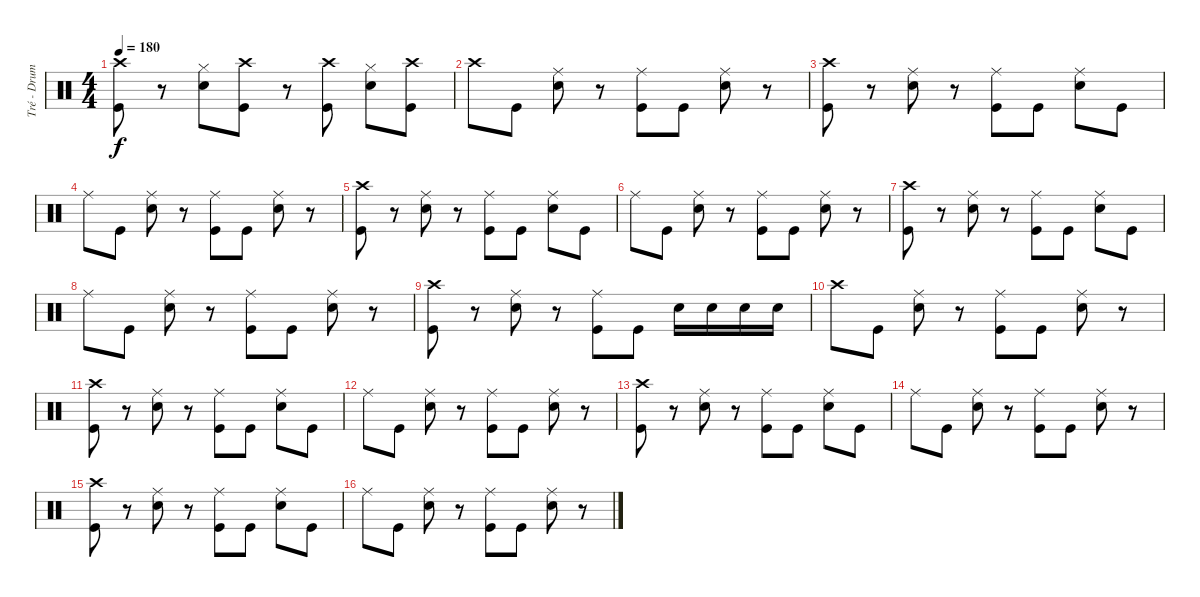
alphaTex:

\track ("Tré - Drums" "Tré - Drum") {instrument percussion}
\staff {score}
\articulation defaults
\ts (4 4)
\tempo 180
\clef neutral
\ks c
("Crash high (hit)" "Kick (hit)").8{dy f} r.8 ("Hi-Hat (closed)" "Electric Snare (hit)").8 ("Crash high (hit)" "Kick (hit)").8 r.8 ("Crash high (hit)" "Kick (hit)").8 ("Hi-Hat (closed)" "Electric Snare (hit)").8 ("Crash high (hit)" "Kick (hit)").8 |
"Crash high (hit)".8 "Kick (hit)".8 ("Ride (middle)" "Electric Snare (hit)").8 r.8 ("Ride (middle)" "Kick (hit)").8 "Kick (hit)".8 ("Ride (middle)" "Electric Snare (hit)").8 r.8 |
("Crash high (hit)" "Kick (hit)").8 r.8 ("Ride (middle)" "Electric Snare (hit)").8 r.8 ("Ride (middle)" "Kick (hit)").8 "Kick (hit)".8 ("Ride (middle)" "Electric Snare (hit)").8 "Kick (hit)".8 |
"Ride (middle)".8 "Kick (hit)".8 ("Ride (middle)" "Electric Snare (hit)").8 r.8 ("Ride (middle)" "Kick (hit)").8 "Kick (hit)".8 ("Ride (middle)" "Electric Snare (hit)").8 r.8 |
("Crash high (hit)" "Kick (hit)").8 r.8 ("Ride (middle)" "Electric Snare (hit)").8 r.8 ("Ride (middle)" "Kick (hit)").8 "Kick (hit)".8 ("Ride (middle)" "Electric Snare (hit)").8 "Kick (hit)".8 |
"Ride (middle)".8 "Kick (hit)".8 ("Ride (middle)" "Electric Snare (hit)").8 r.8 ("Ride (middle)" "Kick (hit)").8 "Kick (hit)".8 ("Ride (middle)" "Electric Snare (hit)").8 r.8 |
("Crash high (hit)" "Kick (hit)").8 r.8 ("Ride (middle)" "Electric Snare (hit)").8 r.8 ("Ride (middle)" "Kick (hit)").8 "Kick (hit)".8 ("Ride (middle)" "Electric Snare (hit)").8 "Kick (hit)".8 |
"Ride (middle)".8 "Kick (hit)".8 ("Ride (middle)" "Electric Snare (hit)").8 r.8 ("Ride (middle)" "Kick (hit)").8 "Kick (hit)".8 ("Ride (middle)" "Electric Snare (hit)").8 r.8 |
("Crash high (hit)" "Kick (hit)").8 r.8 ("Ride (middle)" "Electric Snare (hit)").8 r.8 ("Ride (middle)" "Kick (hit)").8 "Kick (hit)".8 "Electric Snare (hit)".16 "Electric Snare (hit)".16 "Electric Snare (hit)".16 "Electric Snare (hit)".16 |
"Crash high (hit)".8 "Kick (hit)".8 ("Ride (middle)" "Electric Snare (hit)").8 r.8 ("Ride (middle)" "Kick (hit)").8 "Kick (hit)".8 ("Ride (middle)" "Electric Snare (hit)").8 r.8 |
("Crash high (hit)" "Kick (hit)").8 r.8 ("Ride (middle)" "Electric Snare (hit)").8 r.8 ("Ride (middle)" "Kick (hit)").8 "Kick (hit)".8 ("Ride (middle)" "Electric Snare (hit)").8 "Kick (hit)".8 |
"Ride (middle)".8 "Kick (hit)".8 ("Ride (middle)" "Electric Snare (hit)").8 r.8 ("Ride (middle)" "Kick (hit)").8 "Kick (hit)".8 ("Ride (middle)" "Electric Snare (hit)").8 r.8 |
("Crash high (hit)" "Kick (hit)").8 r.8 ("Ride (middle)" "Electric Snare (hit)").8 r.8 ("Ride (middle)" "Kick (hit)").8 "Kick (hit)".8 ("Ride (middle)" "Electric Snare (hit)").8 "Kick (hit)".8 |
"Ride (middle)".8 "Kick (hit)".8 ("Ride (middle)" "Electric Snare (hit)").8 r.8 ("Ride (middle)" "Kick (hit)").8 "Kick (hit)".8 ("Ride (middle)" "Electric Snare (hit)").8 r.8 |
("Crash high (hit)" "Kick (hit)").8 r.8 ("Ride (middle)" "Electric Snare (hit)").8 r.8 ("Ride (middle)" "Kick (hit)").8 "Kick (hit)".8 ("Ride (middle)" "Electric Snare (hit)").8 "Kick (hit)".8 |
"Ride (middle)".8 "Kick (hit)".8 ("Ride (middle)" "Electric Snare (hit)").8 r.8 ("Ride (middle)" "Kick (hit)").8 "Kick (hit)".8 ("Ride (middle)" "Electric Snare (hit)").8 r.8
